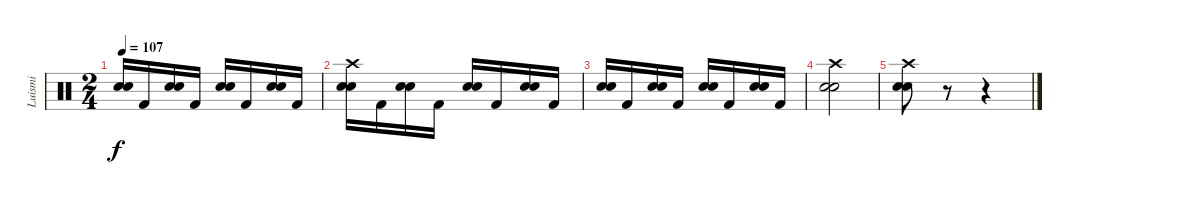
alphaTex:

\track ("Luismi" "Luismi") {instrument percussion}
\staff {score}
\articulation defaults
\ts (2 4)
\tempo 107
\clef neutral
\ks c
("Snare (hit) 2" "Electric Snare (hit)").16{dy f} "Kick (hit) 2".16 ("Snare (hit) 2" "Electric Snare (hit)").16 "Kick (hit) 2".16 ("Snare (hit) 2" "Electric Snare (hit)").16 "Kick (hit) 2".16 ("Snare (hit) 2" "Electric Snare (hit)").16 "Kick (hit) 2".16 |
("Crash high (hit)" "Snare (hit) 2" "Electric Snare (hit)").16 "Kick (hit) 2".16 ("Snare (hit) 2" "Electric Snare (hit)").16 "Kick (hit) 2".16 ("Snare (hit) 2" "Electric Snare (hit)").16 "Kick (hit) 2".16 ("Snare (hit) 2" "Electric Snare (hit)").16 "Kick (hit) 2".16 |
("Snare (hit) 2" "Electric Snare (hit)").16 "Kick (hit) 2".16 ("Snare (hit) 2" "Electric Snare (hit)").16 "Kick (hit) 2".16 ("Snare (hit) 2" "Electric Snare (hit)").16 "Kick (hit) 2".16 ("Snare (hit) 2" "Electric Snare (hit)").16 "Kick (hit) 2".16 |
("Crash high (hit)" "Snare (hit) 2" "Electric Snare (hit)").2 |
("Crash high (hit)" "Snare (hit) 2" "Electric Snare (hit)").8 r.8 r.4
